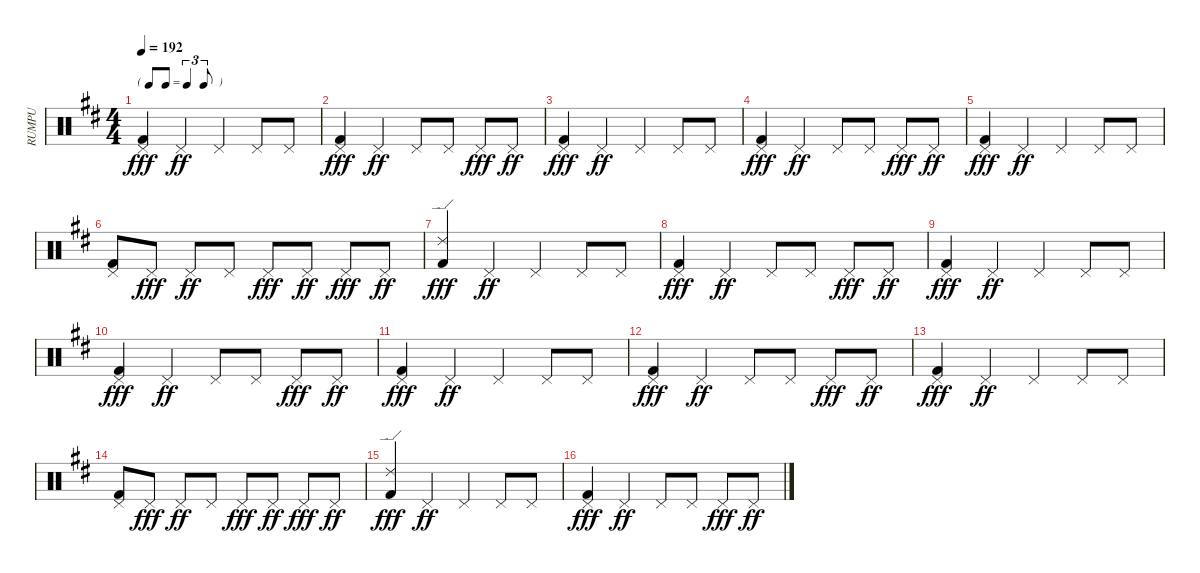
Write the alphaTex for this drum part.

\track ("RUMPU" "RUMPU") {instrument percussion}
\staff {score}
\articulation defaults
\ts (4 4)
\tf triplet8th
\tempo 192
\clef neutral
\ks d
("Pedal Hi-Hat (hit)" "Kick (hit) 2").4{dy fff} "Pedal Hi-Hat (hit)".4{dy ff} "Pedal Hi-Hat (hit)".4 "Pedal Hi-Hat (hit)".8 "Pedal Hi-Hat (hit)".8 |
("Pedal Hi-Hat (hit)" "Kick (hit) 2").4{dy fff} "Pedal Hi-Hat (hit)".4{dy ff} "Pedal Hi-Hat (hit)".8 "Pedal Hi-Hat (hit)".8 "Pedal Hi-Hat (hit)".8{dy fff} "Pedal Hi-Hat (hit)".8{dy ff} |
("Pedal Hi-Hat (hit)" "Kick (hit) 2").4{dy fff} "Pedal Hi-Hat (hit)".4{dy ff} "Pedal Hi-Hat (hit)".4 "Pedal Hi-Hat (hit)".8 "Pedal Hi-Hat (hit)".8 |
("Pedal Hi-Hat (hit)" "Kick (hit) 2").4{dy fff} "Pedal Hi-Hat (hit)".4{dy ff} "Pedal Hi-Hat (hit)".8 "Pedal Hi-Hat (hit)".8 "Pedal Hi-Hat (hit)".8{dy fff} "Pedal Hi-Hat (hit)".8{dy ff} |
("Pedal Hi-Hat (hit)" "Kick (hit) 2").4{dy fff} "Pedal Hi-Hat (hit)".4{dy ff} "Pedal Hi-Hat (hit)".4 "Pedal Hi-Hat (hit)".8 "Pedal Hi-Hat (hit)".8 |
("Pedal Hi-Hat (hit)" "Kick (hit) 2").8 "Pedal Hi-Hat (hit)".8{dy fff} "Pedal Hi-Hat (hit)".8{dy ff} "Pedal Hi-Hat (hit)".8 "Pedal Hi-Hat (hit)".8{dy fff} "Pedal Hi-Hat (hit)".8{dy ff} "Pedal Hi-Hat (hit)".8{dy fff} "Pedal Hi-Hat (hit)".8{dy ff} |
("Ride (edge) 2" "Kick (hit) 2").4{dy fff} "Pedal Hi-Hat (hit)".4{dy ff} "Pedal Hi-Hat (hit)".4 "Pedal Hi-Hat (hit)".8 "Pedal Hi-Hat (hit)".8 |
("Pedal Hi-Hat (hit)" "Kick (hit) 2").4{dy fff} "Pedal Hi-Hat (hit)".4{dy ff} "Pedal Hi-Hat (hit)".8 "Pedal Hi-Hat (hit)".8 "Pedal Hi-Hat (hit)".8{dy fff} "Pedal Hi-Hat (hit)".8{dy ff} |
("Pedal Hi-Hat (hit)" "Kick (hit) 2").4{dy fff} "Pedal Hi-Hat (hit)".4{dy ff} "Pedal Hi-Hat (hit)".4 "Pedal Hi-Hat (hit)".8 "Pedal Hi-Hat (hit)".8 |
("Pedal Hi-Hat (hit)" "Kick (hit) 2").4{dy fff} "Pedal Hi-Hat (hit)".4{dy ff} "Pedal Hi-Hat (hit)".8 "Pedal Hi-Hat (hit)".8 "Pedal Hi-Hat (hit)".8{dy fff} "Pedal Hi-Hat (hit)".8{dy ff} |
("Pedal Hi-Hat (hit)" "Kick (hit) 2").4{dy fff} "Pedal Hi-Hat (hit)".4{dy ff} "Pedal Hi-Hat (hit)".4 "Pedal Hi-Hat (hit)".8 "Pedal Hi-Hat (hit)".8 |
("Pedal Hi-Hat (hit)" "Kick (hit) 2").4{dy fff} "Pedal Hi-Hat (hit)".4{dy ff} "Pedal Hi-Hat (hit)".8 "Pedal Hi-Hat (hit)".8 "Pedal Hi-Hat (hit)".8{dy fff} "Pedal Hi-Hat (hit)".8{dy ff} |
("Pedal Hi-Hat (hit)" "Kick (hit) 2").4{dy fff} "Pedal Hi-Hat (hit)".4{dy ff} "Pedal Hi-Hat (hit)".4 "Pedal Hi-Hat (hit)".8 "Pedal Hi-Hat (hit)".8 |
("Pedal Hi-Hat (hit)" "Kick (hit) 2").8 "Pedal Hi-Hat (hit)".8{dy fff} "Pedal Hi-Hat (hit)".8{dy ff} "Pedal Hi-Hat (hit)".8 "Pedal Hi-Hat (hit)".8{dy fff} "Pedal Hi-Hat (hit)".8{dy ff} "Pedal Hi-Hat (hit)".8{dy fff} "Pedal Hi-Hat (hit)".8{dy ff} |
("Ride (edge) 2" "Kick (hit) 2").4{dy fff} "Pedal Hi-Hat (hit)".4{dy ff} "Pedal Hi-Hat (hit)".4 "Pedal Hi-Hat (hit)".8 "Pedal Hi-Hat (hit)".8 |
("Pedal Hi-Hat (hit)" "Kick (hit) 2").4{dy fff} "Pedal Hi-Hat (hit)".4{dy ff} "Pedal Hi-Hat (hit)".8 "Pedal Hi-Hat (hit)".8 "Pedal Hi-Hat (hit)".8{dy fff} "Pedal Hi-Hat (hit)".8{dy ff}
